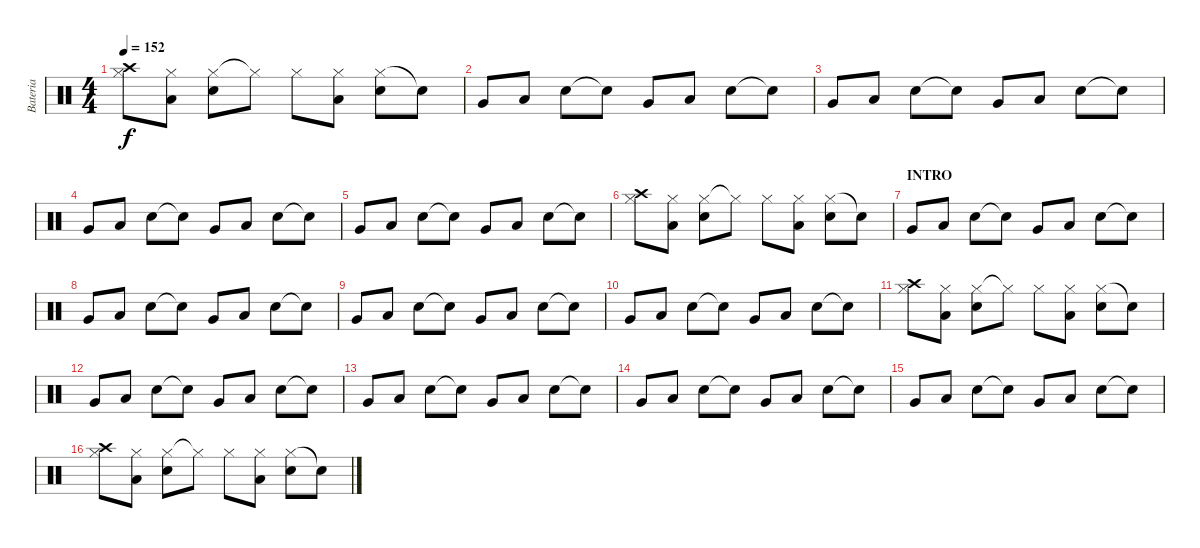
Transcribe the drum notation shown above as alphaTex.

\track ("Bateria" "Bateria") {instrument percussion}
\staff {score}
\articulation defaults
\ts (4 4)
\tempo 152
\clef neutral
\ks c
("Hi-Hat (closed)" "Crash high (hit)").8{dy f} ("Low Floor Tom (hit)" "Hi-Hat (closed)").8 ("Hi-Hat (closed)" "Snare (hit) 2").8 "Hi-Hat (closed)"{t}.8 "Hi-Hat (closed)".8 ("Low Floor Tom (hit)" "Hi-Hat (closed)").8 ("Hi-Hat (closed)" "Snare (hit) 2").8 "Snare (hit)"{t}.8 |
"Very Low Tom (hit)".8 "Low Floor Tom (hit)".8 "Snare (hit) 2".8 "Snare (hit)"{t}.8 "Very Low Tom (hit)".8 "Low Floor Tom (hit)".8 "Snare (hit) 2".8 "Snare (hit)"{t}.8 |
"Very Low Tom (hit)".8 "Low Floor Tom (hit)".8 "Snare (hit) 2".8 "Snare (hit)"{t}.8 "Very Low Tom (hit)".8 "Low Floor Tom (hit)".8 "Snare (hit) 2".8 "Snare (hit)"{t}.8 |
"Very Low Tom (hit)".8 "Low Floor Tom (hit)".8 "Snare (hit) 2".8 "Snare (hit)"{t}.8 "Very Low Tom (hit)".8 "Low Floor Tom (hit)".8 "Snare (hit) 2".8 "Snare (hit)"{t}.8 |
"Very Low Tom (hit)".8 "Low Floor Tom (hit)".8 "Snare (hit) 2".8 "Snare (hit)"{t}.8 "Very Low Tom (hit)".8 "Low Floor Tom (hit)".8 "Snare (hit) 2".8 "Snare (hit)"{t}.8 |
("Hi-Hat (closed)" "Crash high (hit)").8 ("Low Floor Tom (hit)" "Hi-Hat (closed)").8 ("Hi-Hat (closed)" "Snare (hit) 2").8 "Hi-Hat (closed)"{t}.8 "Hi-Hat (closed)".8 ("Low Floor Tom (hit)" "Hi-Hat (closed)").8 ("Hi-Hat (closed)" "Snare (hit) 2").8 "Snare (hit)"{t}.8 |
\section ("" "INTRO")
"Very Low Tom (hit)".8 "Low Floor Tom (hit)".8 "Snare (hit) 2".8 "Snare (hit)"{t}.8 "Very Low Tom (hit)".8 "Low Floor Tom (hit)".8 "Snare (hit) 2".8 "Snare (hit)"{t}.8 |
"Very Low Tom (hit)".8 "Low Floor Tom (hit)".8 "Snare (hit) 2".8 "Snare (hit)"{t}.8 "Very Low Tom (hit)".8 "Low Floor Tom (hit)".8 "Snare (hit) 2".8 "Snare (hit)"{t}.8 |
"Very Low Tom (hit)".8 "Low Floor Tom (hit)".8 "Snare (hit) 2".8 "Snare (hit)"{t}.8 "Very Low Tom (hit)".8 "Low Floor Tom (hit)".8 "Snare (hit) 2".8 "Snare (hit)"{t}.8 |
"Very Low Tom (hit)".8 "Low Floor Tom (hit)".8 "Snare (hit) 2".8 "Snare (hit)"{t}.8 "Very Low Tom (hit)".8 "Low Floor Tom (hit)".8 "Snare (hit) 2".8 "Snare (hit)"{t}.8 |
("Hi-Hat (closed)" "Crash high (hit)").8 ("Low Floor Tom (hit)" "Hi-Hat (closed)").8 ("Hi-Hat (closed)" "Snare (hit) 2").8 "Hi-Hat (closed)"{t}.8 "Hi-Hat (closed)".8 ("Low Floor Tom (hit)" "Hi-Hat (closed)").8 ("Hi-Hat (closed)" "Snare (hit) 2").8 "Snare (hit)"{t}.8 |
"Very Low Tom (hit)".8 "Low Floor Tom (hit)".8 "Snare (hit) 2".8 "Snare (hit)"{t}.8 "Very Low Tom (hit)".8 "Low Floor Tom (hit)".8 "Snare (hit) 2".8 "Snare (hit)"{t}.8 |
"Very Low Tom (hit)".8 "Low Floor Tom (hit)".8 "Snare (hit) 2".8 "Snare (hit)"{t}.8 "Very Low Tom (hit)".8 "Low Floor Tom (hit)".8 "Snare (hit) 2".8 "Snare (hit)"{t}.8 |
"Very Low Tom (hit)".8 "Low Floor Tom (hit)".8 "Snare (hit) 2".8 "Snare (hit)"{t}.8 "Very Low Tom (hit)".8 "Low Floor Tom (hit)".8 "Snare (hit) 2".8 "Snare (hit)"{t}.8 |
"Very Low Tom (hit)".8 "Low Floor Tom (hit)".8 "Snare (hit) 2".8 "Snare (hit)"{t}.8 "Very Low Tom (hit)".8 "Low Floor Tom (hit)".8 "Snare (hit) 2".8 "Snare (hit)"{t}.8 |
("Hi-Hat (closed)" "Crash high (hit)").8 ("Low Floor Tom (hit)" "Hi-Hat (closed)").8 ("Hi-Hat (closed)" "Snare (hit) 2").8 "Hi-Hat (closed)"{t}.8 "Hi-Hat (closed)".8 ("Low Floor Tom (hit)" "Hi-Hat (closed)").8 ("Hi-Hat (closed)" "Snare (hit) 2").8 "Snare (hit)"{t}.8
